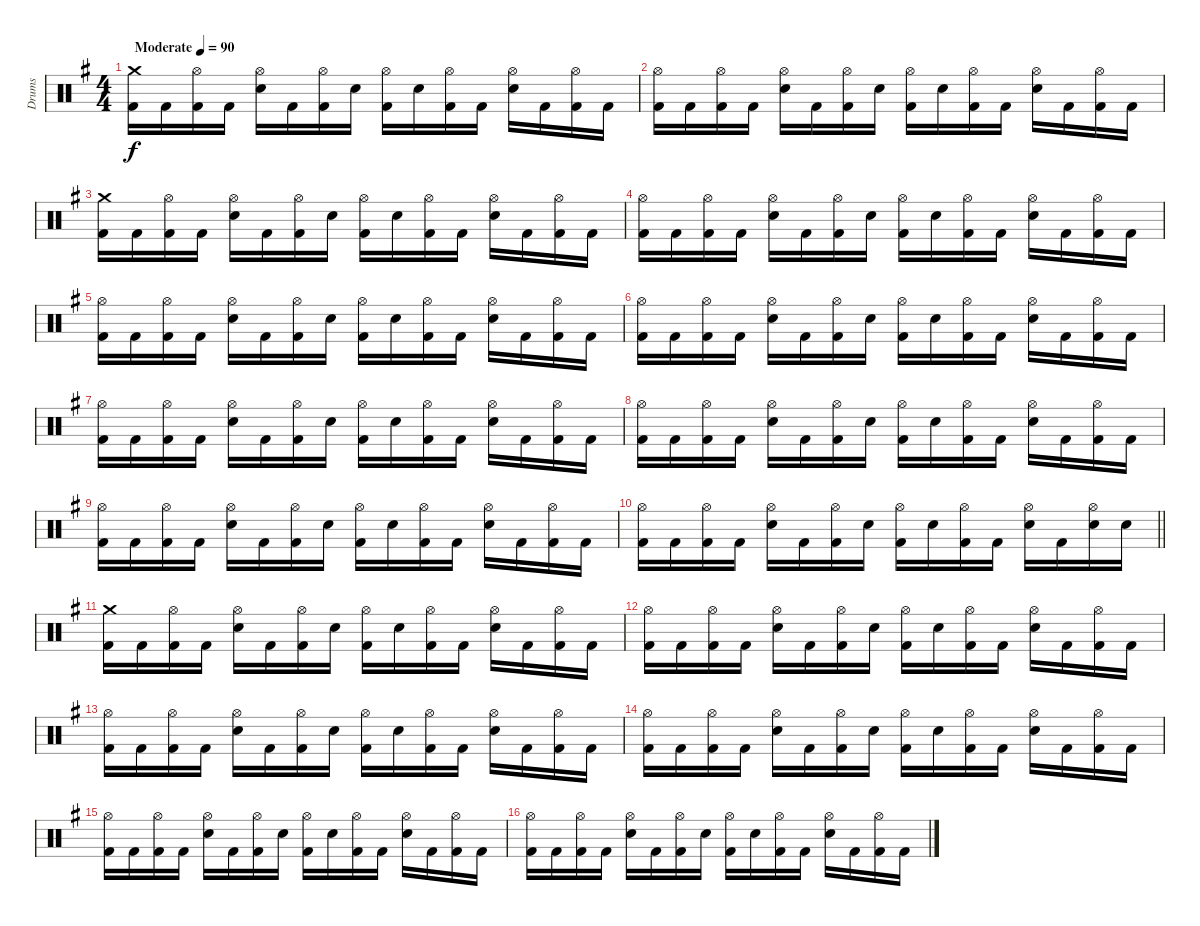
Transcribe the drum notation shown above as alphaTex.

\track ("Drums" "Drums") {instrument percussion}
\staff {score}
\articulation defaults
\ts (4 4)
\tempo (90 "Moderate")
\clef neutral
\ks eminor
("Kick (hit) 2" "Crash medium (hit)").16{dy f} "Kick (hit) 2".16 ("Kick (hit) 2" "Hi-Hat (open)").16 "Kick (hit) 2".16 ("Electric Snare (hit)" "Hi-Hat (open)").16 "Kick (hit) 2".16 ("Kick (hit) 2" "Hi-Hat (open)").16 "Electric Snare (hit)".16 ("Kick (hit) 2" "Hi-Hat (open)").16 "Electric Snare (hit)".16 ("Kick (hit) 2" "Hi-Hat (open)").16 "Kick (hit) 2".16 ("Electric Snare (hit)" "Hi-Hat (open)").16 "Kick (hit) 2".16 ("Kick (hit) 2" "Hi-Hat (open)").16 "Kick (hit) 2".16 |
("Kick (hit) 2" "Hi-Hat (open)").16 "Kick (hit) 2".16 ("Kick (hit) 2" "Hi-Hat (open)").16 "Kick (hit) 2".16 ("Electric Snare (hit)" "Hi-Hat (open)").16 "Kick (hit) 2".16 ("Kick (hit) 2" "Hi-Hat (open)").16 "Electric Snare (hit)".16 ("Kick (hit) 2" "Hi-Hat (open)").16 "Electric Snare (hit)".16 ("Kick (hit) 2" "Hi-Hat (open)").16 "Kick (hit) 2".16 ("Electric Snare (hit)" "Hi-Hat (open)").16 "Kick (hit) 2".16 ("Kick (hit) 2" "Hi-Hat (open)").16 "Kick (hit) 2".16 |
("Kick (hit) 2" "Crash medium (hit)").16 "Kick (hit) 2".16 ("Kick (hit) 2" "Hi-Hat (open)").16 "Kick (hit) 2".16 ("Electric Snare (hit)" "Hi-Hat (open)").16 "Kick (hit) 2".16 ("Kick (hit) 2" "Hi-Hat (open)").16 "Electric Snare (hit)".16 ("Kick (hit) 2" "Hi-Hat (open)").16 "Electric Snare (hit)".16 ("Kick (hit) 2" "Hi-Hat (open)").16 "Kick (hit) 2".16 ("Electric Snare (hit)" "Hi-Hat (open)").16 "Kick (hit) 2".16 ("Kick (hit) 2" "Hi-Hat (open)").16 "Kick (hit) 2".16 |
("Kick (hit) 2" "Hi-Hat (open)").16 "Kick (hit) 2".16 ("Kick (hit) 2" "Hi-Hat (open)").16 "Kick (hit) 2".16 ("Electric Snare (hit)" "Hi-Hat (open)").16 "Kick (hit) 2".16 ("Kick (hit) 2" "Hi-Hat (open)").16 "Electric Snare (hit)".16 ("Kick (hit) 2" "Hi-Hat (open)").16 "Electric Snare (hit)".16 ("Kick (hit) 2" "Hi-Hat (open)").16 "Kick (hit) 2".16 ("Electric Snare (hit)" "Hi-Hat (open)").16 "Kick (hit) 2".16 ("Kick (hit) 2" "Hi-Hat (open)").16 "Kick (hit) 2".16 |
("Kick (hit) 2" "Hi-Hat (open)").16 "Kick (hit) 2".16 ("Kick (hit) 2" "Hi-Hat (open)").16 "Kick (hit) 2".16 ("Electric Snare (hit)" "Hi-Hat (open)").16 "Kick (hit) 2".16 ("Kick (hit) 2" "Hi-Hat (open)").16 "Electric Snare (hit)".16 ("Kick (hit) 2" "Hi-Hat (open)").16 "Electric Snare (hit)".16 ("Kick (hit) 2" "Hi-Hat (open)").16 "Kick (hit) 2".16 ("Electric Snare (hit)" "Hi-Hat (open)").16 "Kick (hit) 2".16 ("Kick (hit) 2" "Hi-Hat (open)").16 "Kick (hit) 2".16 |
("Kick (hit) 2" "Hi-Hat (open)").16 "Kick (hit) 2".16 ("Kick (hit) 2" "Hi-Hat (open)").16 "Kick (hit) 2".16 ("Electric Snare (hit)" "Hi-Hat (open)").16 "Kick (hit) 2".16 ("Kick (hit) 2" "Hi-Hat (open)").16 "Electric Snare (hit)".16 ("Kick (hit) 2" "Hi-Hat (open)").16 "Electric Snare (hit)".16 ("Kick (hit) 2" "Hi-Hat (open)").16 "Kick (hit) 2".16 ("Electric Snare (hit)" "Hi-Hat (open)").16 "Kick (hit) 2".16 ("Kick (hit) 2" "Hi-Hat (open)").16 "Kick (hit) 2".16 |
("Kick (hit) 2" "Hi-Hat (open)").16 "Kick (hit) 2".16 ("Kick (hit) 2" "Hi-Hat (open)").16 "Kick (hit) 2".16 ("Electric Snare (hit)" "Hi-Hat (open)").16 "Kick (hit) 2".16 ("Kick (hit) 2" "Hi-Hat (open)").16 "Electric Snare (hit)".16 ("Kick (hit) 2" "Hi-Hat (open)").16 "Electric Snare (hit)".16 ("Kick (hit) 2" "Hi-Hat (open)").16 "Kick (hit) 2".16 ("Electric Snare (hit)" "Hi-Hat (open)").16 "Kick (hit) 2".16 ("Kick (hit) 2" "Hi-Hat (open)").16 "Kick (hit) 2".16 |
("Kick (hit) 2" "Hi-Hat (open)").16 "Kick (hit) 2".16 ("Kick (hit) 2" "Hi-Hat (open)").16 "Kick (hit) 2".16 ("Electric Snare (hit)" "Hi-Hat (open)").16 "Kick (hit) 2".16 ("Kick (hit) 2" "Hi-Hat (open)").16 "Electric Snare (hit)".16 ("Kick (hit) 2" "Hi-Hat (open)").16 "Electric Snare (hit)".16 ("Kick (hit) 2" "Hi-Hat (open)").16 "Kick (hit) 2".16 ("Electric Snare (hit)" "Hi-Hat (open)").16 "Kick (hit) 2".16 ("Kick (hit) 2" "Hi-Hat (open)").16 "Kick (hit) 2".16 |
("Kick (hit) 2" "Hi-Hat (open)").16 "Kick (hit) 2".16 ("Kick (hit) 2" "Hi-Hat (open)").16 "Kick (hit) 2".16 ("Electric Snare (hit)" "Hi-Hat (open)").16 "Kick (hit) 2".16 ("Kick (hit) 2" "Hi-Hat (open)").16 "Electric Snare (hit)".16 ("Kick (hit) 2" "Hi-Hat (open)").16 "Electric Snare (hit)".16 ("Kick (hit) 2" "Hi-Hat (open)").16 "Kick (hit) 2".16 ("Electric Snare (hit)" "Hi-Hat (open)").16 "Kick (hit) 2".16 ("Kick (hit) 2" "Hi-Hat (open)").16 "Kick (hit) 2".16 |
\barLineRight lightlight
("Kick (hit) 2" "Hi-Hat (open)").16 "Kick (hit) 2".16 ("Kick (hit) 2" "Hi-Hat (open)").16 "Kick (hit) 2".16 ("Electric Snare (hit)" "Hi-Hat (open)").16 "Kick (hit) 2".16 ("Kick (hit) 2" "Hi-Hat (open)").16 "Electric Snare (hit)".16 ("Kick (hit) 2" "Hi-Hat (open)").16 "Electric Snare (hit)".16 ("Kick (hit) 2" "Hi-Hat (open)").16 "Kick (hit) 2".16 ("Electric Snare (hit)" "Hi-Hat (open)").16 "Kick (hit) 2".16 ("Electric Snare (hit)" "Hi-Hat (open)").16 "Electric Snare (hit)".16 |
("Kick (hit) 2" "Crash medium (hit)").16 "Kick (hit) 2".16 ("Kick (hit) 2" "Hi-Hat (open)").16 "Kick (hit) 2".16 ("Electric Snare (hit)" "Hi-Hat (open)").16 "Kick (hit) 2".16 ("Kick (hit) 2" "Hi-Hat (open)").16 "Electric Snare (hit)".16 ("Kick (hit) 2" "Hi-Hat (open)").16 "Electric Snare (hit)".16 ("Kick (hit) 2" "Hi-Hat (open)").16 "Kick (hit) 2".16 ("Electric Snare (hit)" "Hi-Hat (open)").16 "Kick (hit) 2".16 ("Kick (hit) 2" "Hi-Hat (open)").16 "Kick (hit) 2".16 |
("Kick (hit) 2" "Hi-Hat (open)").16 "Kick (hit) 2".16 ("Kick (hit) 2" "Hi-Hat (open)").16 "Kick (hit) 2".16 ("Electric Snare (hit)" "Hi-Hat (open)").16 "Kick (hit) 2".16 ("Kick (hit) 2" "Hi-Hat (open)").16 "Electric Snare (hit)".16 ("Kick (hit) 2" "Hi-Hat (open)").16 "Electric Snare (hit)".16 ("Kick (hit) 2" "Hi-Hat (open)").16 "Kick (hit) 2".16 ("Electric Snare (hit)" "Hi-Hat (open)").16 "Kick (hit) 2".16 ("Kick (hit) 2" "Hi-Hat (open)").16 "Kick (hit) 2".16 |
("Kick (hit) 2" "Hi-Hat (open)").16 "Kick (hit) 2".16 ("Kick (hit) 2" "Hi-Hat (open)").16 "Kick (hit) 2".16 ("Electric Snare (hit)" "Hi-Hat (open)").16 "Kick (hit) 2".16 ("Kick (hit) 2" "Hi-Hat (open)").16 "Electric Snare (hit)".16 ("Kick (hit) 2" "Hi-Hat (open)").16 "Electric Snare (hit)".16 ("Kick (hit) 2" "Hi-Hat (open)").16 "Kick (hit) 2".16 ("Electric Snare (hit)" "Hi-Hat (open)").16 "Kick (hit) 2".16 ("Kick (hit) 2" "Hi-Hat (open)").16 "Kick (hit) 2".16 |
("Kick (hit) 2" "Hi-Hat (open)").16 "Kick (hit) 2".16 ("Kick (hit) 2" "Hi-Hat (open)").16 "Kick (hit) 2".16 ("Electric Snare (hit)" "Hi-Hat (open)").16 "Kick (hit) 2".16 ("Kick (hit) 2" "Hi-Hat (open)").16 "Electric Snare (hit)".16 ("Kick (hit) 2" "Hi-Hat (open)").16 "Electric Snare (hit)".16 ("Kick (hit) 2" "Hi-Hat (open)").16 "Kick (hit) 2".16 ("Electric Snare (hit)" "Hi-Hat (open)").16 "Kick (hit) 2".16 ("Kick (hit) 2" "Hi-Hat (open)").16 "Kick (hit) 2".16 |
("Kick (hit) 2" "Hi-Hat (open)").16 "Kick (hit) 2".16 ("Kick (hit) 2" "Hi-Hat (open)").16 "Kick (hit) 2".16 ("Electric Snare (hit)" "Hi-Hat (open)").16 "Kick (hit) 2".16 ("Kick (hit) 2" "Hi-Hat (open)").16 "Electric Snare (hit)".16 ("Kick (hit) 2" "Hi-Hat (open)").16 "Electric Snare (hit)".16 ("Kick (hit) 2" "Hi-Hat (open)").16 "Kick (hit) 2".16 ("Electric Snare (hit)" "Hi-Hat (open)").16 "Kick (hit) 2".16 ("Kick (hit) 2" "Hi-Hat (open)").16 "Kick (hit) 2".16 |
("Kick (hit) 2" "Hi-Hat (open)").16 "Kick (hit) 2".16 ("Kick (hit) 2" "Hi-Hat (open)").16 "Kick (hit) 2".16 ("Electric Snare (hit)" "Hi-Hat (open)").16 "Kick (hit) 2".16 ("Kick (hit) 2" "Hi-Hat (open)").16 "Electric Snare (hit)".16 ("Kick (hit) 2" "Hi-Hat (open)").16 "Electric Snare (hit)".16 ("Kick (hit) 2" "Hi-Hat (open)").16 "Kick (hit) 2".16 ("Electric Snare (hit)" "Hi-Hat (open)").16 "Kick (hit) 2".16 ("Kick (hit) 2" "Hi-Hat (open)").16 "Kick (hit) 2".16
